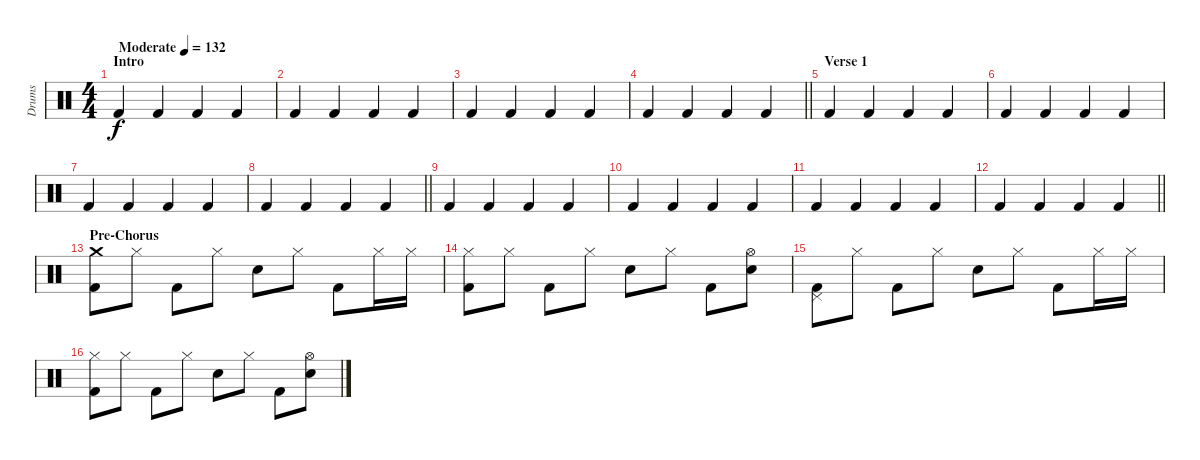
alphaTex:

\track ("Drums" "Drums") {instrument percussion}
\staff {score}
\articulation defaults
\ts (4 4)
\section ("" "Intro")
\tempo (132 "Moderate")
\clef neutral
\ks c "Kick (hit) 2".4{dy f} "Kick (hit) 2".4 "Kick (hit) 2".4 "Kick (hit) 2".4
|
"Kick (hit) 2".4 "Kick (hit) 2".4 "Kick (hit) 2".4 "Kick (hit) 2".4 |
"Kick (hit) 2".4 "Kick (hit) 2".4 "Kick (hit) 2".4 "Kick (hit) 2".4 |
\barLineRight lightlight "Kick (hit) 2".4 "Kick (hit) 2".4 "Kick (hit) 2".4 "Kick (hit) 2".4
|
\section ("" "Verse 1")
"Kick (hit) 2".4 "Kick (hit) 2".4 "Kick (hit) 2".4 "Kick (hit) 2".4 |
"Kick (hit) 2".4 "Kick (hit) 2".4 "Kick (hit) 2".4 "Kick (hit) 2".4 |
"Kick (hit) 2".4 "Kick (hit) 2".4 "Kick (hit) 2".4 "Kick (hit) 2".4 |
\barLineRight lightlight "Kick (hit) 2".4 "Kick (hit) 2".4 "Kick (hit) 2".4 "Kick (hit) 2".4
|
"Kick (hit) 2".4 "Kick (hit) 2".4 "Kick (hit) 2".4 "Kick (hit) 2".4 |
"Kick (hit) 2".4 "Kick (hit) 2".4 "Kick (hit) 2".4 "Kick (hit) 2".4 |
"Kick (hit) 2".4 "Kick (hit) 2".4 "Kick (hit) 2".4 "Kick (hit) 2".4 |
\barLineRight lightlight "Kick (hit) 2".4 "Kick (hit) 2".4 "Kick (hit) 2".4 "Kick (hit) 2".4
|
\section ("" "Pre-Chorus")
("Kick (hit) 2" "Crash medium (hit)").8 "Hi-Hat (closed)".8 "Kick (hit) 2".8 "Hi-Hat (closed)".8 "Electric Snare (hit)".8 "Hi-Hat (closed)".8 "Kick (hit) 2".8 "Hi-Hat (closed)".16 "Hi-Hat (closed)".16 |
("Kick (hit) 2" "Hi-Hat (closed)").8 "Hi-Hat (closed)".8 "Kick (hit) 2".8 "Hi-Hat (closed)".8 "Electric Snare (hit)".8 "Hi-Hat (closed)".8 "Kick (hit) 2".8 ("Electric Snare (hit)" "Hi-Hat (open)").8 |
("Kick (hit) 2" "Pedal Hi-Hat (hit)").8 "Hi-Hat (closed)".8 "Kick (hit) 2".8 "Hi-Hat (closed)".8 "Electric Snare (hit)".8 "Hi-Hat (closed)".8 "Kick (hit) 2".8 "Hi-Hat (closed)".16 "Hi-Hat (closed)".16 |
("Kick (hit) 2" "Hi-Hat (closed)").8 "Hi-Hat (closed)".8 "Kick (hit) 2".8 "Hi-Hat (closed)".8 "Electric Snare (hit)".8 "Hi-Hat (closed)".8 "Kick (hit) 2".8 ("Electric Snare (hit)" "Hi-Hat (open)").8
